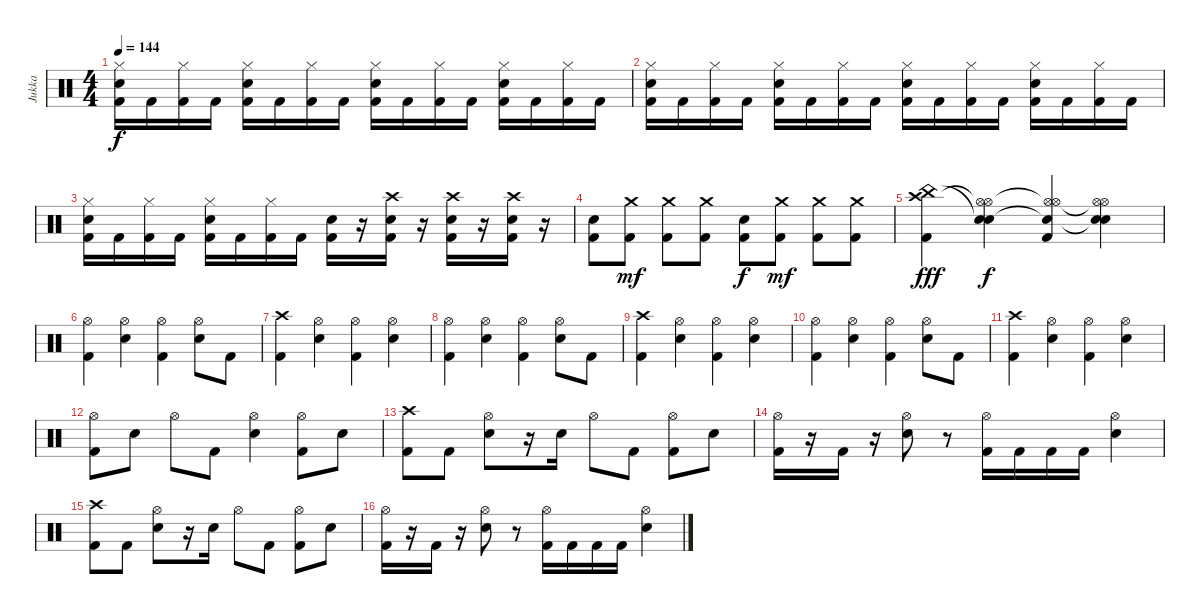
\track ("Jukka" "Jukka") {instrument percussion}
\staff {score}
\articulation defaults
\ts (4 4)
\tempo 144
\clef neutral
\ks c
("Hi-Hat (closed)" "Electric Snare (hit)" "Kick (hit) 2").16{dy f} "Kick (hit) 2".16 ("Hi-Hat (closed)" "Kick (hit) 2").16 "Kick (hit) 2".16 ("Hi-Hat (closed)" "Electric Snare (hit)" "Kick (hit) 2").16 "Kick (hit) 2".16 ("Hi-Hat (closed)" "Kick (hit) 2").16 "Kick (hit) 2".16 ("Hi-Hat (closed)" "Electric Snare (hit)" "Kick (hit) 2").16 "Kick (hit) 2".16 ("Hi-Hat (closed)" "Kick (hit) 2").16 "Kick (hit) 2".16 ("Hi-Hat (closed)" "Electric Snare (hit)" "Kick (hit) 2").16 "Kick (hit) 2".16 ("Hi-Hat (closed)" "Kick (hit) 2").16 "Kick (hit) 2".16 |
("Hi-Hat (closed)" "Electric Snare (hit)" "Kick (hit) 2").16 "Kick (hit) 2".16 ("Hi-Hat (closed)" "Kick (hit) 2").16 "Kick (hit) 2".16 ("Hi-Hat (closed)" "Electric Snare (hit)" "Kick (hit) 2").16 "Kick (hit) 2".16 ("Hi-Hat (closed)" "Kick (hit) 2").16 "Kick (hit) 2".16 ("Hi-Hat (closed)" "Electric Snare (hit)" "Kick (hit) 2").16 "Kick (hit) 2".16 ("Hi-Hat (closed)" "Kick (hit) 2").16 "Kick (hit) 2".16 ("Hi-Hat (closed)" "Electric Snare (hit)" "Kick (hit) 2").16 "Kick (hit) 2".16 ("Hi-Hat (closed)" "Kick (hit) 2").16 "Kick (hit) 2".16 |
("Hi-Hat (closed)" "Electric Snare (hit)" "Kick (hit) 2").16 "Kick (hit) 2".16 ("Hi-Hat (closed)" "Kick (hit) 2").16 "Kick (hit) 2".16 ("Hi-Hat (closed)" "Electric Snare (hit)" "Kick (hit) 2").16 "Kick (hit) 2".16 ("Hi-Hat (closed)" "Kick (hit) 2").16 "Kick (hit) 2".16 ("Electric Snare (hit)" "Kick (hit) 2").16 r.16 ("Crash high (hit)" "Electric Snare (hit)" "Kick (hit) 2").16 r.16 ("Crash high (hit)" "Electric Snare (hit)" "Kick (hit) 2").16 r.16 ("Crash high (hit)" "Electric Snare (hit)" "Kick (hit) 2").16 r.16 |
("Electric Snare (hit)" "Kick (hit) 2").8 ("Crash medium (hit)" "Kick (hit) 2").8{dy mf} ("Crash medium (hit)" "Kick (hit) 2").8 ("Crash medium (hit)" "Kick (hit) 2").8 ("Electric Snare (hit)" "Kick (hit) 2").8{dy f} ("Crash medium (hit)" "Kick (hit) 2").8{dy mf} ("Crash medium (hit)" "Kick (hit) 2").8 ("Crash medium (hit)" "Kick (hit) 2").8 |
("Crash high (hit)" "China (hit)" "Kick (hit) 2").4{dy fff} ("Hi-Hat (open)"{t} "Snare (hit)"{t} "Electric Snare (hit)" "Hi-Hat (open)").4{dy f} ("Hi-Hat (open)"{t} "Snare (hit)"{t} "Hi-Hat (open)" "Kick (hit) 2").4 ("Hi-Hat (open)"{t} "Snare (hit)"{t} "Electric Snare (hit)" "Hi-Hat (open)").4 |
("Hi-Hat (open)" "Kick (hit) 2").4 ("Hi-Hat (open)" "Electric Snare (hit)").4 ("Hi-Hat (open)" "Kick (hit) 2").4 ("Hi-Hat (open)" "Electric Snare (hit)").8 "Kick (hit) 2".8 |
("Crash high (hit)" "Kick (hit) 2").4 ("Hi-Hat (open)" "Electric Snare (hit)").4 ("Hi-Hat (open)" "Kick (hit) 2").4 ("Hi-Hat (open)" "Electric Snare (hit)").4 |
("Hi-Hat (open)" "Kick (hit) 2").4 ("Hi-Hat (open)" "Electric Snare (hit)").4 ("Hi-Hat (open)" "Kick (hit) 2").4 ("Hi-Hat (open)" "Electric Snare (hit)").8 "Kick (hit) 2".8 |
("Crash high (hit)" "Kick (hit) 2").4 ("Hi-Hat (open)" "Electric Snare (hit)").4 ("Hi-Hat (open)" "Kick (hit) 2").4 ("Hi-Hat (open)" "Electric Snare (hit)").4 |
("Hi-Hat (open)" "Kick (hit) 2").4 ("Hi-Hat (open)" "Electric Snare (hit)").4 ("Hi-Hat (open)" "Kick (hit) 2").4 ("Hi-Hat (open)" "Electric Snare (hit)").8 "Kick (hit) 2".8 |
("Crash high (hit)" "Kick (hit) 2").4 ("Hi-Hat (open)" "Electric Snare (hit)").4 ("Hi-Hat (open)" "Kick (hit) 2").4 ("Hi-Hat (open)" "Electric Snare (hit)").4 |
("Hi-Hat (open)" "Kick (hit) 2").8 "Electric Snare (hit)".8 "Hi-Hat (open)".8 "Kick (hit) 2".8 ("Hi-Hat (open)" "Electric Snare (hit)").4 ("Hi-Hat (open)" "Kick (hit) 2").8 "Electric Snare (hit)".8 |
("Crash high (hit)" "Kick (hit) 2").8 "Kick (hit) 2".8 ("Hi-Hat (open)" "Electric Snare (hit)").8 r.16 "Electric Snare (hit)".16 "Hi-Hat (open)".8 "Kick (hit) 2".8 ("Hi-Hat (open)" "Kick (hit) 2").8 "Electric Snare (hit)".8 |
("Hi-Hat (open)" "Kick (hit) 2").16 r.16 "Kick (hit) 2".16 r.16 ("Hi-Hat (open)" "Electric Snare (hit)").8 r.8 ("Hi-Hat (open)" "Kick (hit) 2").16 "Kick (hit) 2".16 "Kick (hit) 2".16 "Kick (hit) 2".16 ("Hi-Hat (open)" "Electric Snare (hit)").4 |
("Crash high (hit)" "Kick (hit) 2").8 "Kick (hit) 2".8 ("Hi-Hat (open)" "Electric Snare (hit)").8 r.16 "Electric Snare (hit)".16 "Hi-Hat (open)".8 "Kick (hit) 2".8 ("Hi-Hat (open)" "Kick (hit) 2").8 "Electric Snare (hit)".8 |
("Hi-Hat (open)" "Kick (hit) 2").16 r.16 "Kick (hit) 2".16 r.16 ("Hi-Hat (open)" "Electric Snare (hit)").8 r.8 ("Hi-Hat (open)" "Kick (hit) 2").16 "Kick (hit) 2".16 "Kick (hit) 2".16 "Kick (hit) 2".16 ("Hi-Hat (open)" "Electric Snare (hit)").4
